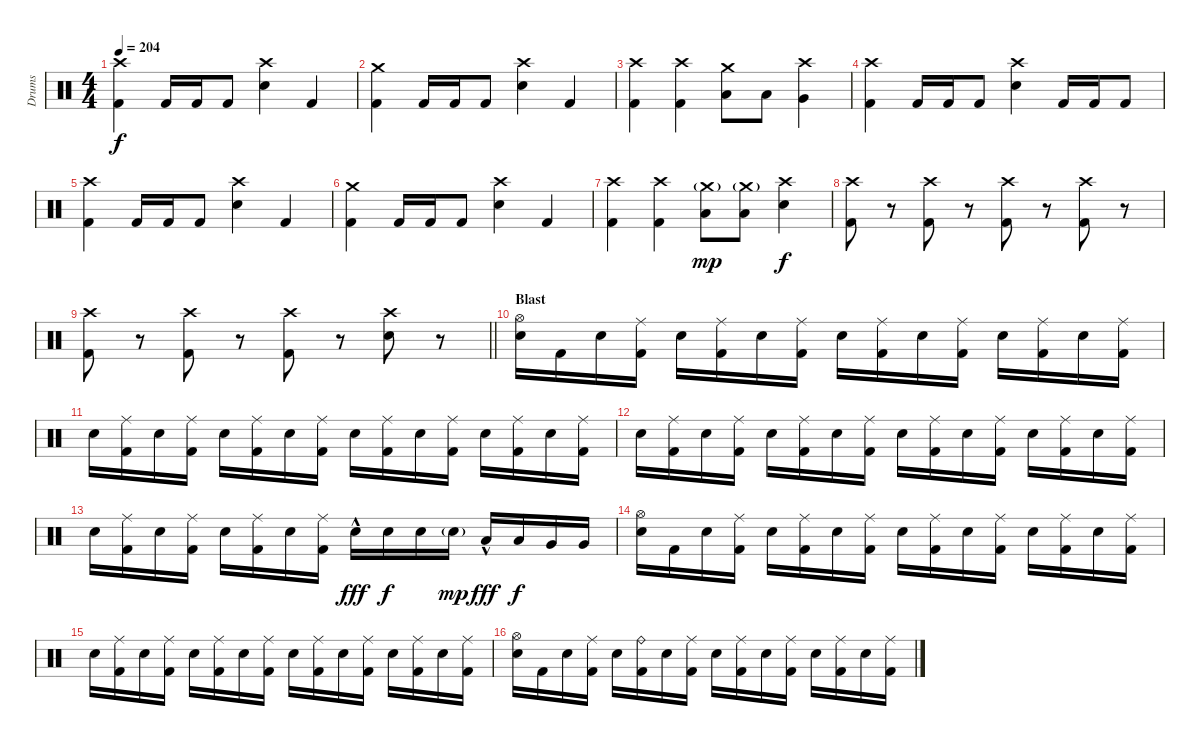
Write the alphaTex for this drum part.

\track ("Drums" "Drums") {instrument percussion}
\staff {score}
\articulation defaults
\ts (4 4)
\tempo 204
\clef neutral
\ks c
("Crash high (hit)" "Kick (hit) 2").4{dy f} "Kick (hit) 2".16 "Kick (hit) 2".16 "Kick (hit) 2".8 ("Crash high (hit)" "Snare (hit) 2").4 "Kick (hit) 2".4 |
("Crash medium (hit)" "Kick (hit) 2").4 "Kick (hit) 2".16 "Kick (hit) 2".16 "Kick (hit) 2".8 ("Crash high (hit)" "Snare (hit) 2").4 "Kick (hit) 2".4 |
("Crash high (hit)" "Kick (hit) 2").4 ("Crash high (hit)" "Kick (hit) 2").4 ("Crash medium (hit)" "Low Floor Tom (hit)").8 "Low Floor Tom (hit)".8 ("Crash high (hit)" "Very Low Tom (hit)").4 |
("Crash high (hit)" "Kick (hit) 2").4 "Kick (hit) 2".16 "Kick (hit) 2".16 "Kick (hit) 2".8 ("Crash high (hit)" "Snare (hit) 2").4 "Kick (hit) 2".16 "Kick (hit) 2".16 "Kick (hit) 2".8 |
("Crash high (hit)" "Kick (hit) 2").4 "Kick (hit) 2".16 "Kick (hit) 2".16 "Kick (hit) 2".8 ("Crash high (hit)" "Snare (hit) 2").4 "Kick (hit) 2".4 |
("Crash medium (hit)" "Kick (hit) 2").4 "Kick (hit) 2".16 "Kick (hit) 2".16 "Kick (hit) 2".8 ("Crash high (hit)" "Snare (hit) 2").4 "Kick (hit) 2".4 |
("Crash high (hit)" "Kick (hit) 2").4 ("Crash high (hit)" "Kick (hit) 2").4 ("Crash medium (hit)"{g} "Low Floor Tom (hit)").8{dy mp} ("Crash medium (hit)"{g} "Low Floor Tom (hit)").8 ("Crash high (hit)" "Snare (hit) 2").4{dy f} |
("Crash high (hit)" "Kick (hit) 2").8{volume 3} r.8{volume 15} ("Crash high (hit)" "Kick (hit) 2").8{volume 3} r.8{volume 15} ("Crash high (hit)" "Kick (hit) 2").8{volume 3} r.8{volume 15} ("Crash high (hit)" "Kick (hit) 2").8{volume 3} r.8{volume 15} |
\barLineRight lightlight
("Crash high (hit)" "Kick (hit) 2").8{volume 3} r.8{volume 15} ("Crash high (hit)" "Kick (hit) 2").8{volume 3} r.8{volume 15} ("Crash high (hit)" "Kick (hit) 2").8{volume 3} r.8{volume 15} ("Crash high (hit)" "Snare (hit) 2").8{volume 3} r.8{volume 15} |
\section ("" "Blast")
("Hi-Hat (open)" "Snare (hit) 2").16{volume 15} "Kick (hit) 2".16 "Snare (hit) 2".16 ("Ride (middle)" "Kick (hit) 2").16 "Snare (hit) 2".16 ("Ride (middle)" "Kick (hit) 2").16 "Snare (hit) 2".16 ("Ride (middle)" "Kick (hit) 2").16 "Snare (hit) 2".16 ("Ride (middle)" "Kick (hit) 2").16 "Snare (hit) 2".16 ("Ride (middle)" "Kick (hit) 2").16 "Snare (hit) 2".16 ("Ride (middle)" "Kick (hit) 2").16 "Snare (hit) 2".16 ("Ride (middle)" "Kick (hit) 2").16 |
"Snare (hit) 2".16 ("Ride (middle)" "Kick (hit) 2").16 "Snare (hit) 2".16 ("Ride (middle)" "Kick (hit) 2").16 "Snare (hit) 2".16 ("Ride (middle)" "Kick (hit) 2").16 "Snare (hit) 2".16 ("Ride (middle)" "Kick (hit) 2").16 "Snare (hit) 2".16 ("Ride (middle)" "Kick (hit) 2").16 "Snare (hit) 2".16 ("Ride (middle)" "Kick (hit) 2").16 "Snare (hit) 2".16 ("Ride (middle)" "Kick (hit) 2").16 "Snare (hit) 2".16 ("Ride (middle)" "Kick (hit) 2").16 |
"Snare (hit) 2".16 ("Ride (middle)" "Kick (hit) 2").16 "Snare (hit) 2".16 ("Ride (middle)" "Kick (hit) 2").16 "Snare (hit) 2".16 ("Ride (middle)" "Kick (hit) 2").16 "Snare (hit) 2".16 ("Ride (middle)" "Kick (hit) 2").16 "Snare (hit) 2".16 ("Ride (middle)" "Kick (hit) 2").16 "Snare (hit) 2".16 ("Ride (middle)" "Kick (hit) 2").16 "Snare (hit) 2".16 ("Ride (middle)" "Kick (hit) 2").16 "Snare (hit) 2".16 ("Ride (middle)" "Kick (hit) 2").16 |
"Snare (hit) 2".16 ("Ride (middle)" "Kick (hit) 2").16 "Snare (hit) 2".16 ("Ride (middle)" "Kick (hit) 2").16 "Snare (hit) 2".16 ("Ride (middle)" "Kick (hit) 2").16 "Snare (hit) 2".16 ("Ride (middle)" "Kick (hit) 2").16 "Snare (hit) 2"{hac}.16{dy fff} "Snare (hit) 2".16{dy f} "Snare (hit) 2".16 "Snare (hit) 2"{g}.16{dy mp} "Low Tom (hit)"{hac}.16{dy fff} "Low Tom (hit)".16{dy f} "Very Low Tom (hit)".16 "Very Low Tom (hit)".16 |
("Hi-Hat (open)" "Snare (hit) 2").16 "Kick (hit) 2".16 "Snare (hit) 2".16 ("Ride (middle)" "Kick (hit) 2").16 "Snare (hit) 2".16 ("Ride (middle)" "Kick (hit) 2").16 "Snare (hit) 2".16 ("Ride (middle)" "Kick (hit) 2").16 "Snare (hit) 2".16 ("Ride (middle)" "Kick (hit) 2").16 "Snare (hit) 2".16 ("Ride (middle)" "Kick (hit) 2").16 "Snare (hit) 2".16 ("Ride (middle)" "Kick (hit) 2").16 "Snare (hit) 2".16 ("Ride (middle)" "Kick (hit) 2").16 |
"Snare (hit) 2".16 ("Ride (middle)" "Kick (hit) 2").16 "Snare (hit) 2".16 ("Ride (middle)" "Kick (hit) 2").16 "Snare (hit) 2".16 ("Ride (middle)" "Kick (hit) 2").16 "Snare (hit) 2".16 ("Ride (middle)" "Kick (hit) 2").16 "Snare (hit) 2".16 ("Ride (middle)" "Kick (hit) 2").16 "Snare (hit) 2".16 ("Ride (middle)" "Kick (hit) 2").16 "Snare (hit) 2".16 ("Ride (middle)" "Kick (hit) 2").16 "Snare (hit) 2".16 ("Ride (middle)" "Kick (hit) 2").16 |
("Hi-Hat (open)" "Snare (hit) 2").16 "Kick (hit) 2".16 "Snare (hit) 2".16 ("Ride (middle)" "Kick (hit) 2").16 "Snare (hit) 2".16 ("Ride (bell)" "Kick (hit) 2").16 "Snare (hit) 2".16 ("Ride (middle)" "Kick (hit) 2").16 "Snare (hit) 2".16 ("Ride (middle)" "Kick (hit) 2").16 "Snare (hit) 2".16 ("Ride (middle)" "Kick (hit) 2").16 "Snare (hit) 2".16 ("Ride (middle)" "Kick (hit) 2").16 "Snare (hit) 2".16 ("Ride (middle)" "Kick (hit) 2").16
